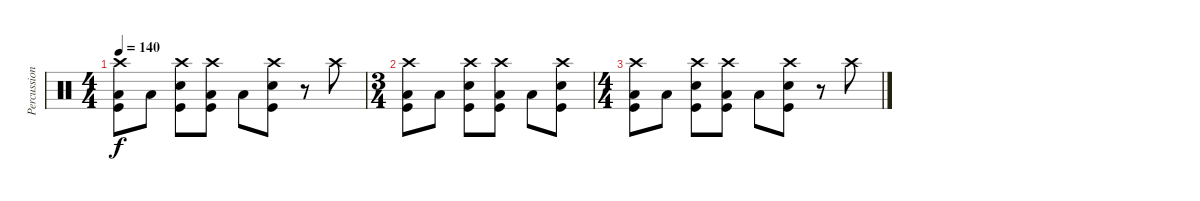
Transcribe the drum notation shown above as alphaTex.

\track ("Percussion" "Percussion") {instrument percussion}
\staff {score}
\articulation defaults
\ts (4 4)
\tempo 140
\clef neutral
\ks c
("Crash high (hit)" "Low Floor Tom (hit)" "Kick (hit)").8{dy f} "Low Floor Tom (hit)".8 ("Crash high (hit)" "Snare (hit) 2" "Kick (hit)").8 ("Crash high (hit)" "Low Floor Tom (hit)" "Kick (hit)").8 "Low Floor Tom (hit)".8 ("Crash high (hit)" "Snare (hit) 2" "Kick (hit)").8 r.8 "Crash high (hit)".8 |
\ts (3 4)
("Crash high (hit)" "Low Floor Tom (hit)" "Kick (hit)").8 "Low Floor Tom (hit)".8 ("Crash high (hit)" "Snare (hit) 2" "Kick (hit)").8 ("Crash high (hit)" "Low Floor Tom (hit)" "Kick (hit)").8 "Low Floor Tom (hit)".8 ("Crash high (hit)" "Snare (hit) 2" "Kick (hit)").8 |
\ts (4 4)
("Crash high (hit)" "Low Floor Tom (hit)" "Kick (hit)").8 "Low Floor Tom (hit)".8 ("Crash high (hit)" "Snare (hit) 2" "Kick (hit)").8 ("Crash high (hit)" "Low Floor Tom (hit)" "Kick (hit)").8 "Low Floor Tom (hit)".8 ("Crash high (hit)" "Snare (hit) 2" "Kick (hit)").8 r.8 "Crash high (hit)".8
